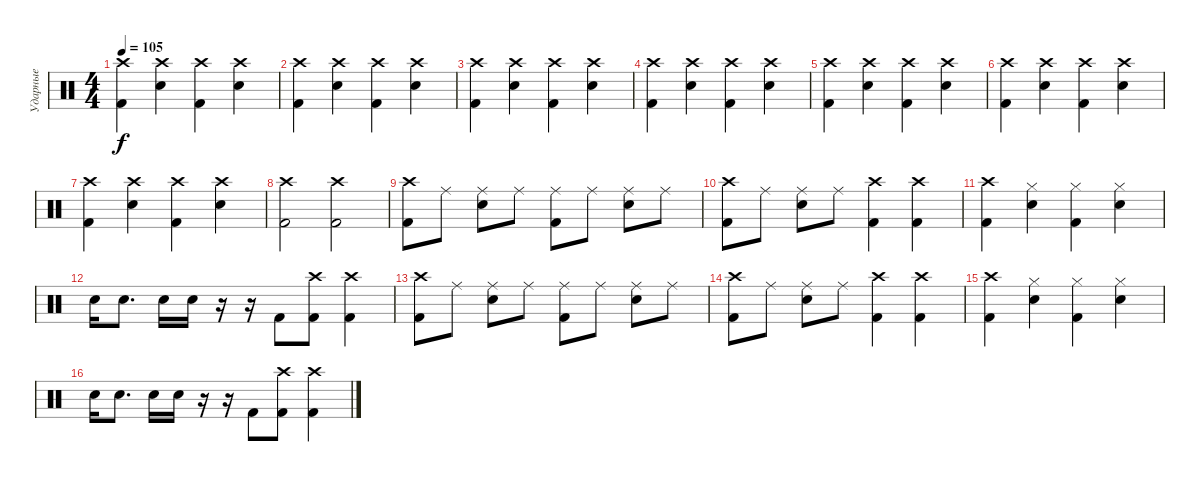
\track ("Ударные" "Ударные") {instrument percussion}
\staff {score}
\articulation defaults
\ts (4 4)
\tempo 105
\clef neutral
\ks c
("Crash high (hit)" "Kick (hit) 2").4{dy f} ("Crash high (hit)" "Electric Snare (hit)").4 ("Kick (hit) 2" "Crash high (hit)").4 ("Crash high (hit)" "Electric Snare (hit)").4 |
("Crash high (hit)" "Kick (hit) 2").4 ("Crash high (hit)" "Electric Snare (hit)").4 ("Kick (hit) 2" "Crash high (hit)").4 ("Crash high (hit)" "Electric Snare (hit)").4 |
("Crash high (hit)" "Kick (hit) 2").4 ("Crash high (hit)" "Electric Snare (hit)").4 ("Kick (hit) 2" "Crash high (hit)").4 ("Crash high (hit)" "Electric Snare (hit)").4 |
("Crash high (hit)" "Kick (hit) 2").4 ("Crash high (hit)" "Electric Snare (hit)").4 ("Kick (hit) 2" "Crash high (hit)").4 ("Crash high (hit)" "Electric Snare (hit)").4 |
("Crash high (hit)" "Kick (hit) 2").4 ("Crash high (hit)" "Electric Snare (hit)").4 ("Kick (hit) 2" "Crash high (hit)").4 ("Crash high (hit)" "Electric Snare (hit)").4 |
("Crash high (hit)" "Kick (hit) 2").4 ("Crash high (hit)" "Electric Snare (hit)").4 ("Kick (hit) 2" "Crash high (hit)").4 ("Crash high (hit)" "Electric Snare (hit)").4 |
("Crash high (hit)" "Kick (hit) 2").4 ("Crash high (hit)" "Electric Snare (hit)").4 ("Kick (hit) 2" "Crash high (hit)").4 ("Crash high (hit)" "Electric Snare (hit)").4 |
("Crash high (hit)" "Kick (hit) 2").2 ("Kick (hit) 2" "Crash high (hit)").2 |
("Crash high (hit)" "Kick (hit) 2").8 "Ride (middle)".8 ("Electric Snare (hit)" "Ride (middle)").8 "Ride (middle)".8 ("Kick (hit) 2" "Ride (middle)").8 "Ride (middle)".8 ("Electric Snare (hit)" "Ride (middle)").8 "Ride (middle)".8 |
("Crash high (hit)" "Kick (hit) 2").8 "Ride (middle)".8 ("Electric Snare (hit)" "Ride (middle)").8 "Ride (middle)".8 ("Crash high (hit)" "Kick (hit) 2").4 ("Kick (hit) 2" "Crash high (hit)").4 |
("Kick (hit) 2" "Crash high (hit)").4 ("Hi-Hat (closed)" "Electric Snare (hit)").4 ("Hi-Hat (closed)" "Kick (hit) 2").4 ("Hi-Hat (closed)" "Electric Snare (hit)").4 |
"Electric Snare (hit)".16 "Electric Snare (hit)".8{d} "Electric Snare (hit)".16 "Electric Snare (hit)".16 r.16 r.16 "Kick (hit) 2".8 ("Crash high (hit)" "Kick (hit) 2").8 ("Kick (hit) 2" "Crash high (hit)").4 |
("Crash high (hit)" "Kick (hit) 2").8 "Ride (middle)".8 ("Electric Snare (hit)" "Ride (middle)").8 "Ride (middle)".8 ("Kick (hit) 2" "Ride (middle)").8 "Ride (middle)".8 ("Electric Snare (hit)" "Ride (middle)").8 "Ride (middle)".8 |
("Crash high (hit)" "Kick (hit) 2").8 "Ride (middle)".8 ("Electric Snare (hit)" "Ride (middle)").8 "Ride (middle)".8 ("Crash high (hit)" "Kick (hit) 2").4 ("Kick (hit) 2" "Crash high (hit)").4 |
("Kick (hit) 2" "Crash high (hit)").4 ("Hi-Hat (closed)" "Electric Snare (hit)").4 ("Hi-Hat (closed)" "Kick (hit) 2").4 ("Hi-Hat (closed)" "Electric Snare (hit)").4 |
"Electric Snare (hit)".16 "Electric Snare (hit)".8{d} "Electric Snare (hit)".16 "Electric Snare (hit)".16 r.16 r.16 "Kick (hit) 2".8 ("Crash high (hit)" "Kick (hit) 2").8 ("Kick (hit) 2" "Crash high (hit)").4
